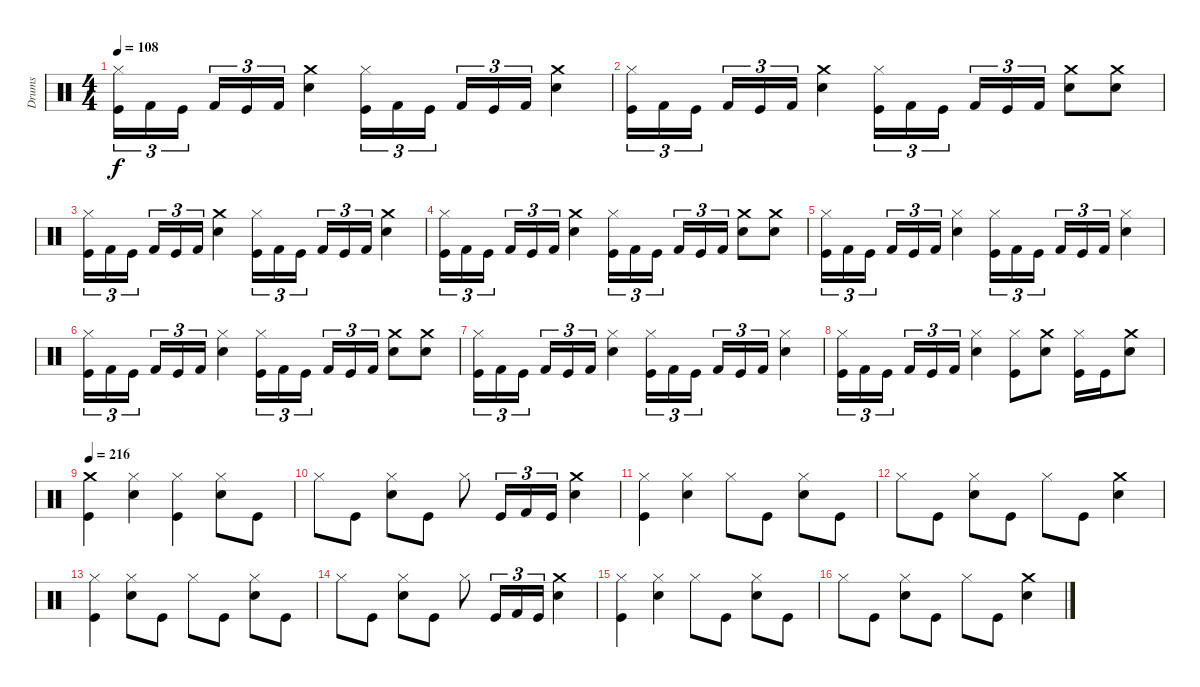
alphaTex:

\track ("Drums" "Drums") {instrument percussion}
\staff {score}
\articulation defaults
\ts (4 4)
\tempo 108
\clef neutral
\ks c
("Hi-Hat (closed)" "Kick (hit)").16{tu (3 2) dy f} "Kick (hit) 2".16{tu (3 2)} "Kick (hit)".16{tu (3 2)} "Kick (hit) 2".16{tu (3 2)} "Kick (hit)".16{tu (3 2)} "Kick (hit) 2".16{tu (3 2)} ("Crash medium (hit)" "Snare (hit) 2").4 ("Hi-Hat (closed)" "Kick (hit)").16{tu (3 2)} "Kick (hit) 2".16{tu (3 2)} "Kick (hit)".16{tu (3 2)} "Kick (hit) 2".16{tu (3 2)} "Kick (hit)".16{tu (3 2)} "Kick (hit) 2".16{tu (3 2)} ("Crash medium (hit)" "Snare (hit) 2").4 |
("Hi-Hat (closed)" "Kick (hit)").16{tu (3 2)} "Kick (hit) 2".16{tu (3 2)} "Kick (hit)".16{tu (3 2)} "Kick (hit) 2".16{tu (3 2)} "Kick (hit)".16{tu (3 2)} "Kick (hit) 2".16{tu (3 2)} ("Crash medium (hit)" "Snare (hit) 2").4 ("Hi-Hat (closed)" "Kick (hit)").16{tu (3 2)} "Kick (hit) 2".16{tu (3 2)} "Kick (hit)".16{tu (3 2)} "Kick (hit) 2".16{tu (3 2)} "Kick (hit)".16{tu (3 2)} "Kick (hit) 2".16{tu (3 2)} ("Snare (hit) 2" "Crash medium (hit)").8 ("Snare (hit) 2" "Crash medium (hit)").8 |
("Hi-Hat (closed)" "Kick (hit)").16{tu (3 2)} "Kick (hit) 2".16{tu (3 2)} "Kick (hit)".16{tu (3 2)} "Kick (hit) 2".16{tu (3 2)} "Kick (hit)".16{tu (3 2)} "Kick (hit) 2".16{tu (3 2)} ("Crash medium (hit)" "Snare (hit) 2").4 ("Hi-Hat (closed)" "Kick (hit)").16{tu (3 2)} "Kick (hit) 2".16{tu (3 2)} "Kick (hit)".16{tu (3 2)} "Kick (hit) 2".16{tu (3 2)} "Kick (hit)".16{tu (3 2)} "Kick (hit) 2".16{tu (3 2)} ("Crash medium (hit)" "Snare (hit) 2").4 |
("Hi-Hat (closed)" "Kick (hit)").16{tu (3 2)} "Kick (hit) 2".16{tu (3 2)} "Kick (hit)".16{tu (3 2)} "Kick (hit) 2".16{tu (3 2)} "Kick (hit)".16{tu (3 2)} "Kick (hit) 2".16{tu (3 2)} ("Crash medium (hit)" "Snare (hit) 2").4 ("Hi-Hat (closed)" "Kick (hit)").16{tu (3 2)} "Kick (hit) 2".16{tu (3 2)} "Kick (hit)".16{tu (3 2)} "Kick (hit) 2".16{tu (3 2)} "Kick (hit)".16{tu (3 2)} "Kick (hit) 2".16{tu (3 2)} ("Snare (hit) 2" "Crash medium (hit)").8 ("Snare (hit) 2" "Crash medium (hit)").8 |
("Hi-Hat (closed)" "Kick (hit)").16{tu (3 2)} "Kick (hit) 2".16{tu (3 2)} "Kick (hit)".16{tu (3 2)} "Kick (hit) 2".16{tu (3 2)} "Kick (hit)".16{tu (3 2)} "Kick (hit) 2".16{tu (3 2)} ("Snare (hit) 2" "Hi-Hat (closed)").4 ("Hi-Hat (closed)" "Kick (hit)").16{tu (3 2)} "Kick (hit) 2".16{tu (3 2)} "Kick (hit)".16{tu (3 2)} "Kick (hit) 2".16{tu (3 2)} "Kick (hit)".16{tu (3 2)} "Kick (hit) 2".16{tu (3 2)} ("Snare (hit) 2" "Hi-Hat (closed)").4 |
("Hi-Hat (closed)" "Kick (hit)").16{tu (3 2)} "Kick (hit) 2".16{tu (3 2)} "Kick (hit)".16{tu (3 2)} "Kick (hit) 2".16{tu (3 2)} "Kick (hit)".16{tu (3 2)} "Kick (hit) 2".16{tu (3 2)} ("Snare (hit) 2" "Hi-Hat (closed)").4 ("Hi-Hat (closed)" "Kick (hit)").16{tu (3 2)} "Kick (hit) 2".16{tu (3 2)} "Kick (hit)".16{tu (3 2)} "Kick (hit) 2".16{tu (3 2)} "Kick (hit)".16{tu (3 2)} "Kick (hit) 2".16{tu (3 2)} ("Snare (hit) 2" "Crash medium (hit)").8 ("Snare (hit) 2" "Crash medium (hit)").8 |
("Hi-Hat (closed)" "Kick (hit)").16{tu (3 2)} "Kick (hit) 2".16{tu (3 2)} "Kick (hit)".16{tu (3 2)} "Kick (hit) 2".16{tu (3 2)} "Kick (hit)".16{tu (3 2)} "Kick (hit) 2".16{tu (3 2)} ("Snare (hit) 2" "Hi-Hat (closed)").4 ("Hi-Hat (closed)" "Kick (hit)").16{tu (3 2)} "Kick (hit) 2".16{tu (3 2)} "Kick (hit)".16{tu (3 2)} "Kick (hit) 2".16{tu (3 2)} "Kick (hit)".16{tu (3 2)} "Kick (hit) 2".16{tu (3 2)} ("Snare (hit) 2" "Hi-Hat (closed)").4 |
("Hi-Hat (closed)" "Kick (hit)").16{tu (3 2)} "Kick (hit) 2".16{tu (3 2)} "Kick (hit)".16{tu (3 2)} "Kick (hit) 2".16{tu (3 2)} "Kick (hit)".16{tu (3 2)} "Kick (hit) 2".16{tu (3 2)} ("Snare (hit) 2" "Hi-Hat (closed)").4 ("Kick (hit)" "Hi-Hat (closed)").8 ("Snare (hit) 2" "Crash medium (hit)").8 ("Kick (hit)" "Hi-Hat (closed)").16 "Kick (hit)".16 ("Crash medium (hit)" "Snare (hit) 2").8 |
\tempo 216
("Kick (hit)" "Crash medium (hit)").4 ("Hi-Hat (closed)" "Snare (hit) 2").4 ("Kick (hit)" "Hi-Hat (closed)").4 ("Hi-Hat (closed)" "Snare (hit) 2").8 "Kick (hit)".8 |
"Hi-Hat (closed)".8 "Kick (hit)".8 ("Snare (hit) 2" "Hi-Hat (closed)").8 "Kick (hit)".8 "Hi-Hat (closed)".8 "Kick (hit)".16{tu (3 2)} "Kick (hit) 2".16{tu (3 2)} "Kick (hit)".16{tu (3 2)} ("Crash medium (hit)" "Snare (hit) 2").4 |
("Hi-Hat (closed)" "Kick (hit)").4 ("Snare (hit) 2" "Hi-Hat (closed)").4 "Hi-Hat (closed)".8 "Kick (hit)".8 ("Snare (hit) 2" "Hi-Hat (closed)").8 "Kick (hit)".8 |
"Hi-Hat (closed)".8 "Kick (hit)".8 ("Snare (hit) 2" "Hi-Hat (closed)").8 "Kick (hit)".8 "Hi-Hat (closed)".8 "Kick (hit)".8 ("Crash medium (hit)" "Snare (hit) 2").4 |
("Kick (hit)" "Hi-Hat (closed)").4 ("Snare (hit) 2" "Hi-Hat (closed)").8 "Kick (hit)".8 "Hi-Hat (closed)".8 "Kick (hit)".8 ("Hi-Hat (closed)" "Snare (hit) 2").8 "Kick (hit)".8 |
"Hi-Hat (closed)".8 "Kick (hit)".8 ("Snare (hit) 2" "Hi-Hat (closed)").8 "Kick (hit)".8 "Hi-Hat (closed)".8 "Kick (hit)".16{tu (3 2)} "Kick (hit) 2".16{tu (3 2)} "Kick (hit)".16{tu (3 2)} ("Crash medium (hit)" "Snare (hit) 2").4 |
("Hi-Hat (closed)" "Kick (hit)").4 ("Snare (hit) 2" "Hi-Hat (closed)").4 "Hi-Hat (closed)".8 "Kick (hit)".8 ("Snare (hit) 2" "Hi-Hat (closed)").8 "Kick (hit)".8 |
"Hi-Hat (closed)".8 "Kick (hit)".8 ("Snare (hit) 2" "Hi-Hat (closed)").8 "Kick (hit)".8 "Hi-Hat (closed)".8 "Kick (hit)".8 ("Crash medium (hit)" "Snare (hit) 2").4
